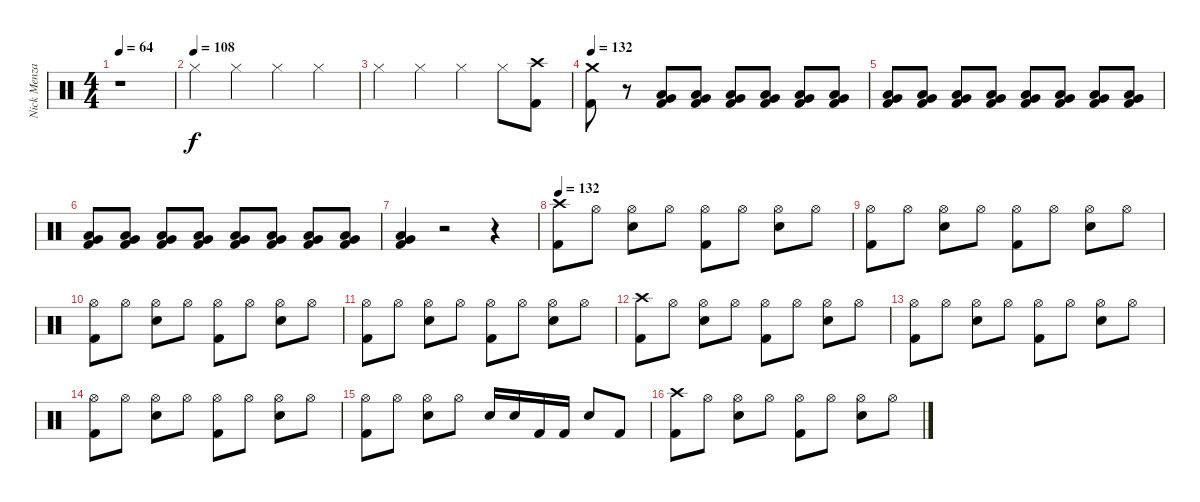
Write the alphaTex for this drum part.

\track ("Nick Menza (Drums)" "Nick Menza") {instrument percussion}
\staff {score}
\articulation defaults
\ts (4 4)
\tempo 64
\clef neutral
\ks c
r.1{dy f} |
\tempo (108)
"Hi-Hat (closed)".4 "Hi-Hat (closed)".4 "Hi-Hat (closed)".4 "Hi-Hat (closed)".4 |
"Hi-Hat (closed)".4 "Hi-Hat (closed)".4 "Hi-Hat (closed)".4 "Hi-Hat (closed)".8 ("Crash high (hit)" "Kick (hit) 2").8 |
\tempo 132
("Crash medium (hit)" "Kick (hit) 2").8 r.8 ("Very Low Tom (hit)" "Low Floor Tom (hit)" "Kick (hit) 2").8 ("Very Low Tom (hit)" "Low Floor Tom (hit)" "Kick (hit) 2").8 ("Very Low Tom (hit)" "Low Floor Tom (hit)" "Kick (hit) 2").8 ("Very Low Tom (hit)" "Low Floor Tom (hit)" "Kick (hit) 2").8 ("Very Low Tom (hit)" "Low Floor Tom (hit)" "Kick (hit) 2").8 ("Very Low Tom (hit)" "Low Floor Tom (hit)" "Kick (hit) 2").8 |
("Very Low Tom (hit)" "Low Floor Tom (hit)" "Kick (hit) 2").8 ("Very Low Tom (hit)" "Low Floor Tom (hit)" "Kick (hit) 2").8 ("Very Low Tom (hit)" "Low Floor Tom (hit)" "Kick (hit) 2").8 ("Very Low Tom (hit)" "Low Floor Tom (hit)" "Kick (hit) 2").8 ("Very Low Tom (hit)" "Low Floor Tom (hit)" "Kick (hit) 2").8 ("Very Low Tom (hit)" "Low Floor Tom (hit)" "Kick (hit) 2").8 ("Very Low Tom (hit)" "Low Floor Tom (hit)" "Kick (hit) 2").8 ("Very Low Tom (hit)" "Low Floor Tom (hit)" "Kick (hit) 2").8 |
("Very Low Tom (hit)" "Low Floor Tom (hit)" "Kick (hit) 2").8 ("Very Low Tom (hit)" "Low Floor Tom (hit)" "Kick (hit) 2").8 ("Very Low Tom (hit)" "Low Floor Tom (hit)" "Kick (hit) 2").8 ("Very Low Tom (hit)" "Low Floor Tom (hit)" "Kick (hit) 2").8 ("Very Low Tom (hit)" "Low Floor Tom (hit)" "Kick (hit) 2").8 ("Very Low Tom (hit)" "Low Floor Tom (hit)" "Kick (hit) 2").8 ("Very Low Tom (hit)" "Low Floor Tom (hit)" "Kick (hit) 2").8 ("Very Low Tom (hit)" "Low Floor Tom (hit)" "Kick (hit) 2").8 |
("Very Low Tom (hit)" "Low Floor Tom (hit)" "Kick (hit) 2").4 r.2 r.4 |
\tempo 132
("Crash high (hit)" "Kick (hit) 2").8 "Hi-Hat (open)".8 ("Hi-Hat (open)" "Snare (hit) 2").8 "Hi-Hat (open)".8 ("Hi-Hat (open)" "Kick (hit) 2").8 "Hi-Hat (open)".8 ("Hi-Hat (open)" "Snare (hit) 2").8 "Hi-Hat (open)".8 |
("Hi-Hat (open)" "Kick (hit) 2").8 "Hi-Hat (open)".8 ("Hi-Hat (open)" "Snare (hit) 2").8 "Hi-Hat (open)".8 ("Hi-Hat (open)" "Kick (hit) 2").8 "Hi-Hat (open)".8 ("Hi-Hat (open)" "Snare (hit) 2").8 "Hi-Hat (open)".8 |
("Hi-Hat (open)" "Kick (hit) 2").8 "Hi-Hat (open)".8 ("Hi-Hat (open)" "Snare (hit) 2").8 "Hi-Hat (open)".8 ("Hi-Hat (open)" "Kick (hit) 2").8 "Hi-Hat (open)".8 ("Hi-Hat (open)" "Snare (hit) 2").8 "Hi-Hat (open)".8 |
("Hi-Hat (open)" "Kick (hit) 2").8 "Hi-Hat (open)".8 ("Hi-Hat (open)" "Snare (hit) 2").8 "Hi-Hat (open)".8 ("Hi-Hat (open)" "Kick (hit) 2").8 "Hi-Hat (open)".8 ("Hi-Hat (open)" "Snare (hit) 2").8 "Hi-Hat (open)".8 |
("Crash high (hit)" "Kick (hit) 2").8 "Hi-Hat (open)".8 ("Hi-Hat (open)" "Snare (hit) 2").8 "Hi-Hat (open)".8 ("Hi-Hat (open)" "Kick (hit) 2").8 "Hi-Hat (open)".8 ("Hi-Hat (open)" "Snare (hit) 2").8 "Hi-Hat (open)".8 |
("Hi-Hat (open)" "Kick (hit) 2").8 "Hi-Hat (open)".8 ("Hi-Hat (open)" "Snare (hit) 2").8 "Hi-Hat (open)".8 ("Hi-Hat (open)" "Kick (hit) 2").8 "Hi-Hat (open)".8 ("Hi-Hat (open)" "Snare (hit) 2").8 "Hi-Hat (open)".8 |
("Hi-Hat (open)" "Kick (hit) 2").8 "Hi-Hat (open)".8 ("Hi-Hat (open)" "Snare (hit) 2").8 "Hi-Hat (open)".8 ("Hi-Hat (open)" "Kick (hit) 2").8 "Hi-Hat (open)".8 ("Hi-Hat (open)" "Snare (hit) 2").8 "Hi-Hat (open)".8 |
("Hi-Hat (open)" "Kick (hit) 2").8 "Hi-Hat (open)".8 ("Hi-Hat (open)" "Snare (hit) 2").8 "Hi-Hat (open)".8 "Snare (hit) 2".16 "Snare (hit) 2".16 "Kick (hit) 2".16 "Kick (hit) 2".16 "Snare (hit) 2".8 "Kick (hit) 2".8 |
("Crash high (hit)" "Kick (hit) 2").8 "Hi-Hat (open)".8 ("Hi-Hat (open)" "Snare (hit) 2").8 "Hi-Hat (open)".8 ("Hi-Hat (open)" "Kick (hit) 2").8 "Hi-Hat (open)".8 ("Hi-Hat (open)" "Snare (hit) 2").8 "Hi-Hat (open)".8
